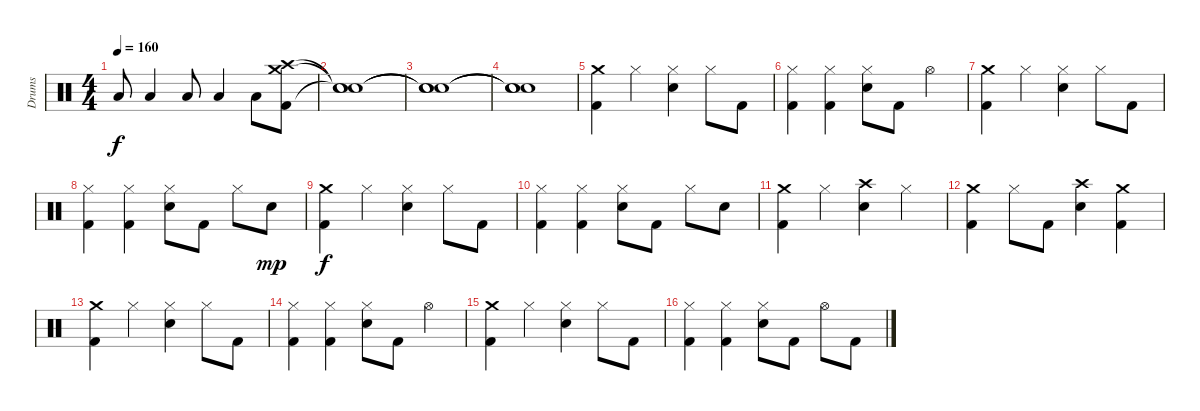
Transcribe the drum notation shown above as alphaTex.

\track ("Drums" "Drums") {instrument percussion}
\staff {score}
\articulation defaults
\ts (4 4)
\tempo 160
\clef neutral
\ks c "Low Floor Tom (hit)".8{dy f} "Low Floor Tom (hit)".4 "Low Floor Tom (hit)".8 "Low Floor Tom (hit)".4 "Low Floor Tom (hit)".8
("Crash medium (hit)" "Crash high (hit)" "Kick (hit) 2").8 |
("Snare (hit)"{t} "Snare (hit)"{t} "Snare (hit)"{t}).1 |
("Snare (hit)"{t} "Snare (hit)"{t} "Snare (hit)"{t}).1 |
("Snare (hit)"{t} "Snare (hit)"{t} "Snare (hit)"{t}).1 |
("Crash medium (hit)" "Kick (hit) 2").4 "Hi-Hat (closed)".4 ("Hi-Hat (closed)" "Snare (hit) 2").4 "Hi-Hat (closed)".8 "Kick (hit) 2".8 |
("Hi-Hat (closed)" "Kick (hit) 2").4 ("Hi-Hat (closed)" "Kick (hit) 2").4 ("Hi-Hat (closed)" "Snare (hit) 2").8 "Kick (hit) 2".8 "Hi-Hat (open)".4 |
("Crash medium (hit)" "Kick (hit) 2").4 "Hi-Hat (closed)".4 ("Hi-Hat (closed)" "Snare (hit) 2").4 "Hi-Hat (closed)".8 "Kick (hit) 2".8 |
("Hi-Hat (closed)" "Kick (hit) 2").4 ("Hi-Hat (closed)" "Kick (hit) 2").4 ("Hi-Hat (closed)" "Snare (hit) 2").8 "Kick (hit) 2".8 "Hi-Hat (closed)".8 "Snare (hit) 2".8{dy mp} |
("Crash medium (hit)" "Kick (hit) 2").4{dy f} "Hi-Hat (closed)".4 ("Hi-Hat (closed)" "Snare (hit) 2").4 "Hi-Hat (closed)".8 "Kick (hit) 2".8 |
("Hi-Hat (closed)" "Kick (hit) 2").4 ("Hi-Hat (closed)" "Kick (hit) 2").4 ("Hi-Hat (closed)" "Snare (hit) 2").8 "Kick (hit) 2".8 "Hi-Hat (closed)".8 "Snare (hit) 2".8 |
("Crash medium (hit)" "Kick (hit) 2").4 "Hi-Hat (closed)".4 ("Crash high (hit)" "Snare (hit) 2").4 "Hi-Hat (closed)".4 |
("Crash medium (hit)" "Kick (hit) 2").4 "Hi-Hat (closed)".8 "Kick (hit) 2".8 ("Crash high (hit)" "Snare (hit) 2").4 ("Crash medium (hit)" "Kick (hit) 2").4 |
("Crash medium (hit)" "Kick (hit) 2").4 "Hi-Hat (closed)".4 ("Hi-Hat (closed)" "Snare (hit) 2").4 "Hi-Hat (closed)".8 "Kick (hit) 2".8 |
("Hi-Hat (closed)" "Kick (hit) 2").4 ("Hi-Hat (closed)" "Kick (hit) 2").4 ("Hi-Hat (closed)" "Snare (hit) 2").8 "Kick (hit) 2".8 "Hi-Hat (open)".4 |
("Crash medium (hit)" "Kick (hit) 2").4 "Hi-Hat (closed)".4 ("Hi-Hat (closed)" "Snare (hit) 2").4 "Hi-Hat (closed)".8 "Kick (hit) 2".8 |
("Hi-Hat (closed)" "Kick (hit) 2").4 ("Hi-Hat (closed)" "Kick (hit) 2").4 ("Hi-Hat (closed)" "Snare (hit) 2").8 "Kick (hit) 2".8 "Hi-Hat (open)".8 "Kick (hit) 2".8
